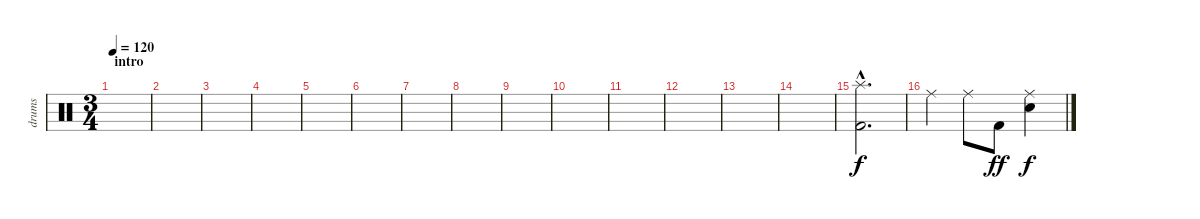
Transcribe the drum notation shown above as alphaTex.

\track ("drums" "drums") {instrument percussion}
\staff {score}
\articulation defaults
\ts (3 4)
\section ("" "intro")
\tempo 120
\clef neutral
\ks c
|
|
|
|
|
|
|
|
|
|
|
|
|
|
("Splash (hit)"{hac} "Kick (hit) 2"{hac}).2{d} |
"Ride (middle)".4{dy f} "Ride (middle)".8 "Kick (hit) 2".8{dy ff} ("Ride (middle)" "Electric Snare (hit)").4{dy f}
